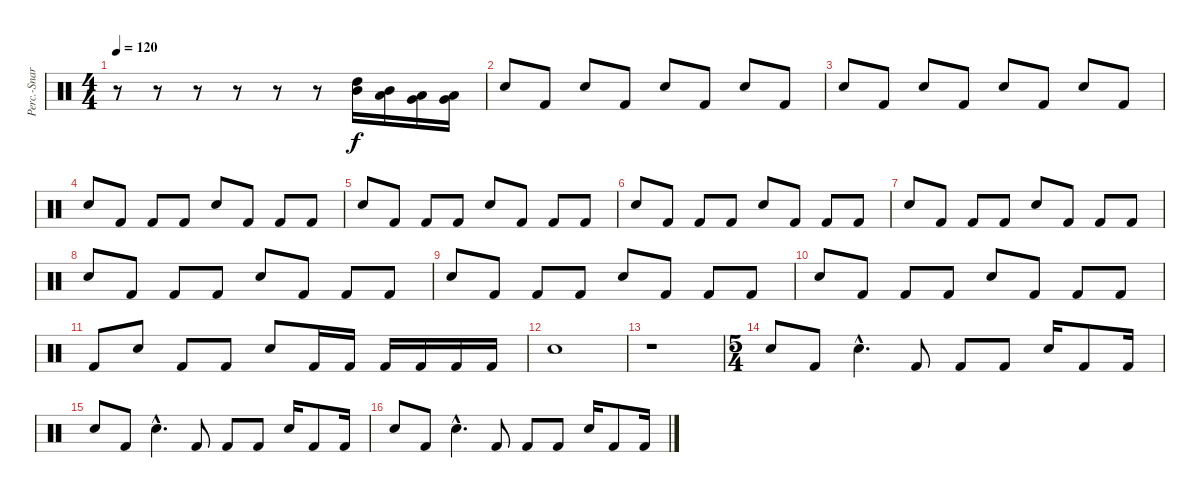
\track ("Perc.-Snare/Kick" "Perc.-Snar") {instrument percussion}
\staff {score}
\articulation defaults
\ts (4 4)
\tempo 120
\clef neutral
\ks c
r.8{dy f} r.8 r.8 r.8 r.8 r.8 ("High Tom (hit)" "Mid Tom (hit)").16 ("Mid Tom (hit)" "Low Tom (hit)").16 ("Low Tom (hit)" "Very Low Tom (hit)").16 ("Very Low Tom (hit)" "Low Floor Tom (hit)").16 |
"Snare (hit) 2".8 "Kick (hit) 2".8 "Snare (hit) 2".8 "Kick (hit) 2".8 "Snare (hit) 2".8 "Kick (hit) 2".8 "Snare (hit) 2".8 "Kick (hit) 2".8 |
"Snare (hit) 2".8 "Kick (hit) 2".8 "Snare (hit) 2".8 "Kick (hit) 2".8 "Snare (hit) 2".8 "Kick (hit) 2".8 "Snare (hit) 2".8 "Kick (hit) 2".8 |
"Snare (hit) 2".8 "Kick (hit) 2".8 "Kick (hit) 2".8 "Kick (hit) 2".8 "Snare (hit) 2".8 "Kick (hit) 2".8 "Kick (hit) 2".8 "Kick (hit) 2".8 |
"Snare (hit) 2".8 "Kick (hit) 2".8 "Kick (hit) 2".8 "Kick (hit) 2".8 "Snare (hit) 2".8 "Kick (hit) 2".8 "Kick (hit) 2".8 "Kick (hit) 2".8 |
"Snare (hit) 2".8 "Kick (hit) 2".8 "Kick (hit) 2".8 "Kick (hit) 2".8 "Snare (hit) 2".8 "Kick (hit) 2".8 "Kick (hit) 2".8 "Kick (hit) 2".8 |
"Snare (hit) 2".8 "Kick (hit) 2".8 "Kick (hit) 2".8 "Kick (hit) 2".8 "Snare (hit) 2".8 "Kick (hit) 2".8 "Kick (hit) 2".8 "Kick (hit) 2".8 |
"Snare (hit) 2".8 "Kick (hit) 2".8 "Kick (hit) 2".8 "Kick (hit) 2".8 "Snare (hit) 2".8 "Kick (hit) 2".8 "Kick (hit) 2".8 "Kick (hit) 2".8 |
"Snare (hit) 2".8 "Kick (hit) 2".8 "Kick (hit) 2".8 "Kick (hit) 2".8 "Snare (hit) 2".8 "Kick (hit) 2".8 "Kick (hit) 2".8 "Kick (hit) 2".8 |
"Snare (hit) 2".8 "Kick (hit) 2".8 "Kick (hit) 2".8 "Kick (hit) 2".8 "Snare (hit) 2".8 "Kick (hit) 2".8 "Kick (hit) 2".8 "Kick (hit) 2".8 |
"Kick (hit) 2".8 "Snare (hit) 2".8 "Kick (hit) 2".8 "Kick (hit) 2".8 "Snare (hit) 2".8 "Kick (hit) 2".16 "Kick (hit) 2".16 "Kick (hit) 2".16 "Kick (hit) 2".16 "Kick (hit) 2".16 "Kick (hit) 2".16 |
"Snare (hit) 2".1 |
r.1 |
\ts (5 4)
"Snare (hit) 2".8 "Kick (hit) 2".8 "Snare (hit) 2"{hac}.4{d} "Kick (hit) 2".8 "Kick (hit) 2".8 "Kick (hit) 2".8 "Snare (hit) 2".16 "Kick (hit) 2".8 "Kick (hit) 2".16 |
"Snare (hit) 2".8 "Kick (hit) 2".8 "Snare (hit) 2"{hac}.4{d} "Kick (hit) 2".8 "Kick (hit) 2".8 "Kick (hit) 2".8 "Snare (hit) 2".16 "Kick (hit) 2".8 "Kick (hit) 2".16 |
"Snare (hit) 2".8 "Kick (hit) 2".8 "Snare (hit) 2"{hac}.4{d} "Kick (hit) 2".8 "Kick (hit) 2".8 "Kick (hit) 2".8 "Snare (hit) 2".16 "Kick (hit) 2".8 "Kick (hit) 2".16
